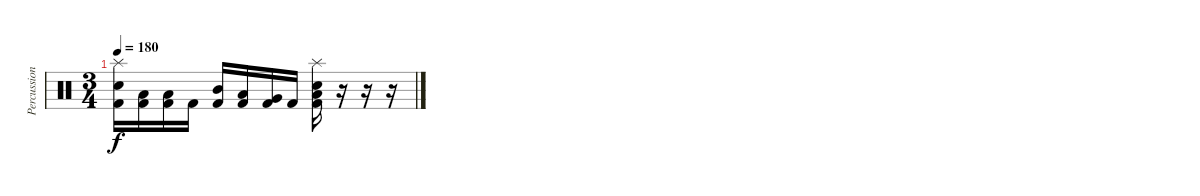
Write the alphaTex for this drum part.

\track ("Percussion" "Percussion") {instrument percussion}
\staff {score}
\articulation defaults
\ts (3 4)
\tempo 180
\clef neutral
\ks c
("Splash (hit)" "Electric Snare (hit)" "Kick (hit) 2").16{dy f} ("Low Tom (hit)" "Kick (hit) 2").16 ("Low Floor Tom (hit)" "Kick (hit) 2").16 "Kick (hit) 2".16 ("Mid Tom (hit)" "Kick (hit) 2").16 ("Low Tom (hit)" "Kick (hit) 2").16 ("Very Low Tom (hit)" "Kick (hit) 2").16 "Kick (hit) 2".16 ("Splash (hit)" "Electric Snare (hit)" "Low Floor Tom (hit)" "Kick (hit) 2").16 r.16 r.16 r.16
